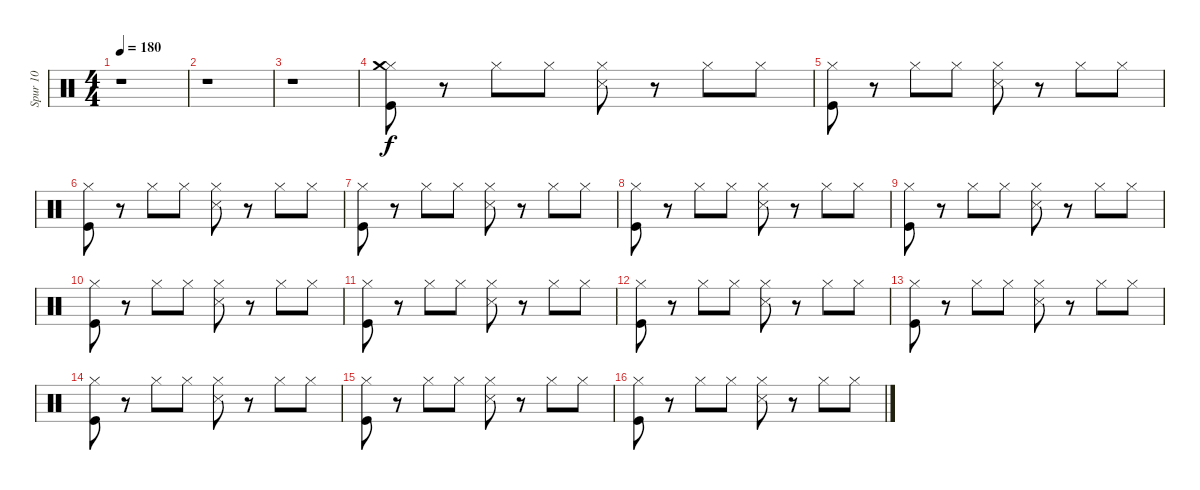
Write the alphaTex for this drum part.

\track ("Spur 10" "Spur 10") {instrument percussion}
\staff {score}
\articulation defaults
\ts (4 4)
\tempo 180
\clef neutral
\ks c
r.1{dy f} |
r.1 |
r.1 |
("Hi-Hat (closed)" "Kick (hit)" "Crash medium (hit)").8 r.8 "Hi-Hat (closed)".8 "Hi-Hat (closed)".8 ("Hi-Hat (closed)" "Snare (side stick) 3").8 r.8 "Hi-Hat (closed)".8 "Hi-Hat (closed)".8 |
("Hi-Hat (closed)" "Kick (hit)").8 r.8 "Hi-Hat (closed)".8 "Hi-Hat (closed)".8 ("Hi-Hat (closed)" "Snare (side stick) 3").8 r.8 "Hi-Hat (closed)".8 "Hi-Hat (closed)".8 |
("Hi-Hat (closed)" "Kick (hit)").8 r.8 "Hi-Hat (closed)".8 "Hi-Hat (closed)".8 ("Hi-Hat (closed)" "Snare (side stick) 3").8 r.8 "Hi-Hat (closed)".8 "Hi-Hat (closed)".8 |
("Hi-Hat (closed)" "Kick (hit)").8 r.8 "Hi-Hat (closed)".8 "Hi-Hat (closed)".8 ("Hi-Hat (closed)" "Snare (side stick) 3").8 r.8 "Hi-Hat (closed)".8 "Hi-Hat (closed)".8 |
("Hi-Hat (closed)" "Kick (hit)").8 r.8 "Hi-Hat (closed)".8 "Hi-Hat (closed)".8 ("Hi-Hat (closed)" "Snare (side stick) 3").8 r.8 "Hi-Hat (closed)".8 "Hi-Hat (closed)".8 |
("Hi-Hat (closed)" "Kick (hit)").8 r.8 "Hi-Hat (closed)".8 "Hi-Hat (closed)".8 ("Hi-Hat (closed)" "Snare (side stick) 3").8 r.8 "Hi-Hat (closed)".8 "Hi-Hat (closed)".8 |
("Hi-Hat (closed)" "Kick (hit)").8 r.8 "Hi-Hat (closed)".8 "Hi-Hat (closed)".8 ("Hi-Hat (closed)" "Snare (side stick) 3").8 r.8 "Hi-Hat (closed)".8 "Hi-Hat (closed)".8 |
("Hi-Hat (closed)" "Kick (hit)").8 r.8 "Hi-Hat (closed)".8 "Hi-Hat (closed)".8 ("Hi-Hat (closed)" "Snare (side stick) 3").8 r.8 "Hi-Hat (closed)".8 "Hi-Hat (closed)".8 |
("Hi-Hat (closed)" "Kick (hit)").8 r.8 "Hi-Hat (closed)".8 "Hi-Hat (closed)".8 ("Hi-Hat (closed)" "Snare (side stick) 3").8 r.8 "Hi-Hat (closed)".8 "Hi-Hat (closed)".8 |
("Hi-Hat (closed)" "Kick (hit)").8 r.8 "Hi-Hat (closed)".8 "Hi-Hat (closed)".8 ("Hi-Hat (closed)" "Snare (side stick) 3").8 r.8 "Hi-Hat (closed)".8 "Hi-Hat (closed)".8 |
("Hi-Hat (closed)" "Kick (hit)").8 r.8 "Hi-Hat (closed)".8 "Hi-Hat (closed)".8 ("Hi-Hat (closed)" "Snare (side stick) 3").8 r.8 "Hi-Hat (closed)".8 "Hi-Hat (closed)".8 |
("Hi-Hat (closed)" "Kick (hit)").8 r.8 "Hi-Hat (closed)".8 "Hi-Hat (closed)".8 ("Hi-Hat (closed)" "Snare (side stick) 3").8 r.8 "Hi-Hat (closed)".8 "Hi-Hat (closed)".8 |
("Hi-Hat (closed)" "Kick (hit)").8 r.8 "Hi-Hat (closed)".8 "Hi-Hat (closed)".8 ("Hi-Hat (closed)" "Snare (side stick) 3").8 r.8 "Hi-Hat (closed)".8 "Hi-Hat (closed)".8
